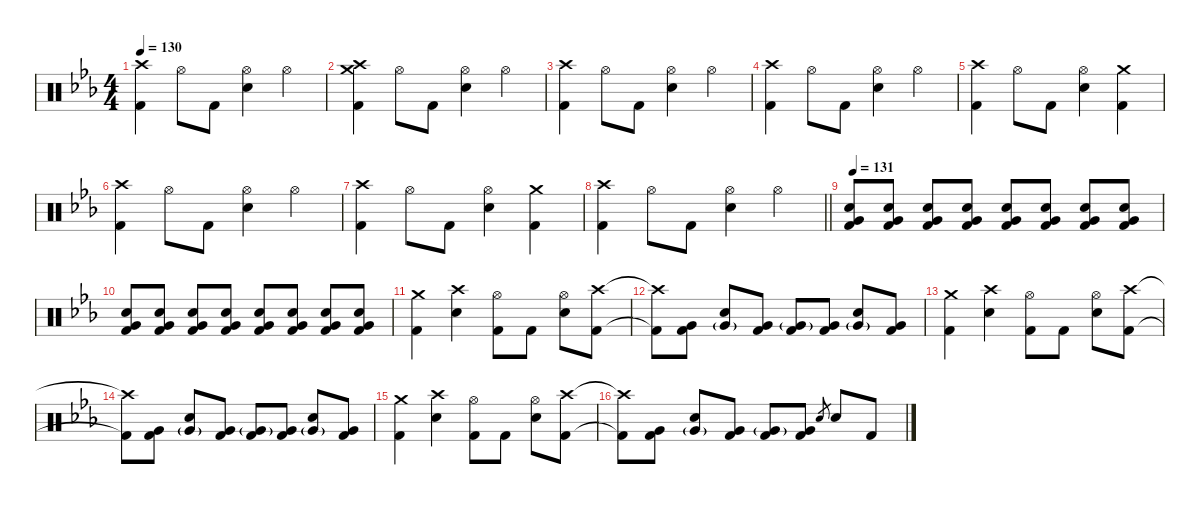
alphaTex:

\defaultSystemsLayout 4
\hideDynamics
\bracketExtendMode nobrackets
\singleTrackTrackNamePolicy hidden
\multiTrackTrackNamePolicy hidden
\firstSystemTrackNameMode fullname
\firstSystemTrackNameOrientation horizontal
\otherSystemsTrackNameOrientation horizontal
\track ("Drums" "drm.") {instrument percussion}
\staff {score}
\articulation defaults
\ts (4 4)
\tempo 130
\clef neutral
\ks cminor
("Crash high (hit)"{acc forcenatural} "Kick (hit) 2"{acc forcenatural}).4{dy mp} "Hi-Hat (open)"{acc forcenatural}.8 "Kick (hit) 2"{acc forcenatural}.8{dy f} ("Hi-Hat (open)"{acc forcenatural} "Snare (hit) 2"{acc forcenatural}).4{dy mp} "Hi-Hat (open)"{acc forcenatural}.4 |
("Crash medium (hit)"{acc forcenatural} "Crash high (hit)"{acc forcenatural} "Kick (hit) 2"{acc forcenatural}).4{dy f} "Hi-Hat (open)"{acc forcenatural}.8{dy mp} "Kick (hit) 2"{acc forcenatural}.8{dy f} ("Hi-Hat (open)"{acc forcenatural} "Snare (hit) 2"{acc forcenatural}).4{dy mp} "Hi-Hat (open)"{acc forcenatural}.4 |
("Crash high (hit)"{acc forcenatural} "Kick (hit) 2"{acc forcenatural}).4 "Hi-Hat (open)"{acc forcenatural}.8 "Kick (hit) 2"{acc forcenatural}.8{dy f} ("Hi-Hat (open)"{acc forcenatural} "Snare (hit) 2"{acc forcenatural}).4{dy mp} "Hi-Hat (open)"{acc forcenatural}.4 |
("Crash high (hit)"{acc forcenatural} "Kick (hit) 2"{acc forcenatural}).4 "Hi-Hat (open)"{acc forcenatural}.8 "Kick (hit) 2"{acc forcenatural}.8{dy f} ("Hi-Hat (open)"{acc forcenatural} "Snare (hit) 2"{acc forcenatural}).4{dy mp} "Hi-Hat (open)"{acc forcenatural}.4 |
("Crash high (hit)"{acc forcenatural} "Kick (hit) 2"{acc forcenatural}).4 "Hi-Hat (open)"{acc forcenatural}.8 "Kick (hit) 2"{acc forcenatural}.8{dy f} ("Hi-Hat (open)"{acc forcenatural} "Snare (hit) 2"{acc forcenatural}).4{dy mp} ("Crash medium (hit)"{acc forcenatural} "Kick (hit) 2"{acc forcenatural}).4 |
("Crash high (hit)"{acc forcenatural} "Kick (hit) 2"{acc forcenatural}).4 "Hi-Hat (open)"{acc forcenatural}.8 "Kick (hit) 2"{acc forcenatural}.8{dy f} ("Hi-Hat (open)"{acc forcenatural} "Snare (hit) 2"{acc forcenatural}).4{dy mp} "Hi-Hat (open)"{acc forcenatural}.4 |
("Crash high (hit)"{acc forcenatural} "Kick (hit) 2"{acc forcenatural}).4 "Hi-Hat (open)"{acc forcenatural}.8 "Kick (hit) 2"{acc forcenatural}.8{dy f} ("Hi-Hat (open)"{acc forcenatural} "Snare (hit) 2"{acc forcenatural}).4{dy mp} ("Crash medium (hit)"{acc forcenatural} "Kick (hit) 2"{acc forcenatural}).4 |
\barLineRight lightlight
("Crash high (hit)"{acc forcenatural} "Kick (hit) 2"{acc forcenatural}).4 "Hi-Hat (open)"{acc forcenatural}.8 "Kick (hit) 2"{acc forcenatural}.8{dy f} ("Hi-Hat (open)"{acc forcenatural} "Snare (hit) 2"{acc forcenatural}).4{dy mp} "Hi-Hat (open)"{acc forcenatural}.4 |
\tempo 131
("Snare (hit) 2"{acc forcenatural} "Very Low Tom (hit)"{acc forcenatural} "Kick (hit) 2"{acc forcenatural}).8{dy ppp} ("Snare (hit) 2"{acc forcenatural} "Very Low Tom (hit)"{acc forcenatural} "Kick (hit) 2"{acc forcenatural}).8 ("Snare (hit) 2"{acc forcenatural} "Very Low Tom (hit)"{acc forcenatural} "Kick (hit) 2"{acc forcenatural}).8{dy pp} ("Snare (hit) 2"{acc forcenatural} "Very Low Tom (hit)"{acc forcenatural} "Kick (hit) 2"{acc forcenatural}).8 ("Snare (hit) 2"{acc forcenatural} "Very Low Tom (hit)"{acc forcenatural} "Kick (hit) 2"{acc forcenatural}).8{dy p} ("Snare (hit) 2"{acc forcenatural} "Very Low Tom (hit)"{acc forcenatural} "Kick (hit) 2"{acc forcenatural}).8 ("Snare (hit) 2"{acc forcenatural} "Very Low Tom (hit)"{acc forcenatural} "Kick (hit) 2"{acc forcenatural}).8{dy mp} ("Snare (hit) 2"{acc forcenatural} "Very Low Tom (hit)"{acc forcenatural} "Kick (hit) 2"{acc forcenatural}).8 |
("Snare (hit) 2"{acc forcenatural} "Very Low Tom (hit)"{acc forcenatural} "Kick (hit) 2"{acc forcenatural}).8{dy mf} ("Snare (hit) 2"{acc forcenatural} "Very Low Tom (hit)"{acc forcenatural} "Kick (hit) 2"{acc forcenatural}).8 ("Snare (hit) 2"{acc forcenatural} "Very Low Tom (hit)"{acc forcenatural} "Kick (hit) 2"{acc forcenatural}).8{dy f} ("Snare (hit) 2"{acc forcenatural} "Very Low Tom (hit)"{acc forcenatural} "Kick (hit) 2"{acc forcenatural}).8 ("Snare (hit) 2"{acc forcenatural} "Very Low Tom (hit)"{acc forcenatural} "Kick (hit) 2"{acc forcenatural}).8{dy ff} ("Snare (hit) 2"{acc forcenatural} "Very Low Tom (hit)"{acc forcenatural} "Kick (hit) 2"{acc forcenatural}).8 ("Snare (hit) 2"{acc forcenatural} "Very Low Tom (hit)"{acc forcenatural} "Kick (hit) 2"{acc forcenatural}).8{dy fff} ("Snare (hit) 2"{acc forcenatural} "Very Low Tom (hit)"{acc forcenatural} "Kick (hit) 2"{acc forcenatural}).8 |
("Crash medium (hit)"{acc forcenatural} "Kick (hit) 2"{acc forcenatural}).4{dy f} ("Crash high (hit)"{acc forcenatural} "Snare (hit) 2"{acc forcenatural}).4 ("Hi-Hat (open)"{acc forcenatural} "Kick (hit) 2"{acc forcenatural}).8{dy mp} "Kick (hit) 2"{acc forcenatural}.8{dy f} ("Hi-Hat (open)"{acc forcenatural} "Snare (hit) 2"{acc forcenatural}).8{dy mp} ("Crash high (hit)"{acc forcenatural} "Kick (hit) 2"{acc forcenatural}).8{dy f} |
("Crash high (hit)"{t acc forcenatural} "Kick (hit) 2"{t acc forcenatural}).8 ("Very Low Tom (hit)"{acc forcenatural} "Kick (hit) 2"{acc forcenatural}).8 ("Snare (hit) 2"{acc forcenatural} "Very Low Tom (hit)"{g acc forcenatural}).8 ("Very Low Tom (hit)"{acc forcenatural} "Kick (hit) 2"{acc forcenatural}).8 ("Very Low Tom (hit)"{g acc forcenatural} "Kick (hit) 2"{acc forcenatural}).8 ("Very Low Tom (hit)"{acc forcenatural} "Kick (hit) 2"{acc forcenatural}).8 ("Snare (hit) 2"{acc forcenatural} "Very Low Tom (hit)"{g acc forcenatural}).8 ("Very Low Tom (hit)"{acc forcenatural} "Kick (hit) 2"{acc forcenatural}).8 |
("Crash medium (hit)"{acc forcenatural} "Kick (hit) 2"{acc forcenatural}).4 ("Crash high (hit)"{acc forcenatural} "Snare (hit) 2"{acc forcenatural}).4 ("Hi-Hat (open)"{acc forcenatural} "Kick (hit) 2"{acc forcenatural}).8{dy mp} "Kick (hit) 2"{acc forcenatural}.8{dy f} ("Hi-Hat (open)"{acc forcenatural} "Snare (hit) 2"{acc forcenatural}).8{dy mp} ("Crash high (hit)"{acc forcenatural} "Kick (hit) 2"{acc forcenatural}).8{dy f} |
("Crash high (hit)"{t acc forcenatural} "Kick (hit) 2"{t acc forcenatural}).8 ("Very Low Tom (hit)"{acc forcenatural} "Kick (hit) 2"{acc forcenatural}).8 ("Snare (hit) 2"{acc forcenatural} "Very Low Tom (hit)"{g acc forcenatural}).8 ("Very Low Tom (hit)"{acc forcenatural} "Kick (hit) 2"{acc forcenatural}).8 ("Very Low Tom (hit)"{g acc forcenatural} "Kick (hit) 2"{acc forcenatural}).8 ("Very Low Tom (hit)"{acc forcenatural} "Kick (hit) 2"{acc forcenatural}).8 ("Snare (hit) 2"{acc forcenatural} "Very Low Tom (hit)"{g acc forcenatural}).8 ("Very Low Tom (hit)"{acc forcenatural} "Kick (hit) 2"{acc forcenatural}).8 |
("Crash medium (hit)"{acc forcenatural} "Kick (hit) 2"{acc forcenatural}).4 ("Crash high (hit)"{acc forcenatural} "Snare (hit) 2"{acc forcenatural}).4 ("Hi-Hat (open)"{acc forcenatural} "Kick (hit) 2"{acc forcenatural}).8{dy mp} "Kick (hit) 2"{acc forcenatural}.8{dy f} ("Hi-Hat (open)"{acc forcenatural} "Snare (hit) 2"{acc forcenatural}).8{dy mp} ("Crash high (hit)"{acc forcenatural} "Kick (hit) 2"{acc forcenatural}).8{dy f} |
("Crash high (hit)"{t acc forcenatural} "Kick (hit) 2"{t acc forcenatural}).8 ("Very Low Tom (hit)"{acc forcenatural} "Kick (hit) 2"{acc forcenatural}).8 ("Snare (hit) 2"{acc forcenatural} "Very Low Tom (hit)"{g acc forcenatural}).8 ("Very Low Tom (hit)"{acc forcenatural} "Kick (hit) 2"{acc forcenatural}).8 ("Very Low Tom (hit)"{g acc forcenatural} "Kick (hit) 2"{acc forcenatural}).8 ("Very Low Tom (hit)"{acc forcenatural} "Kick (hit) 2"{acc forcenatural}).8 "Electric Snare (hit)"{acc forcenatural}.8{gr dy mf} "Snare (hit) 2"{acc forcenatural}.8{dy f} "Kick (hit) 2"{acc forcenatural}.8
